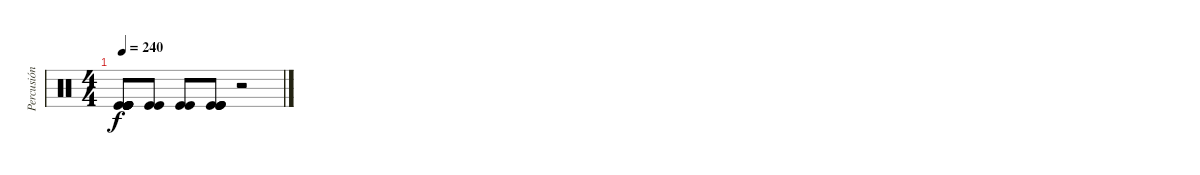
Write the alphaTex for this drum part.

\track ("Percusión" "Percusión") {instrument percussion}
\staff {score}
\articulation defaults
\ts (4 4)
\tempo 240
\clef neutral
\ks c
("Kick (hit)" "Kick (hit)" "Kick (hit)" "Kick (hit)" "Kick (hit)" "Kick (hit)").8{dy f} ("Kick (hit)" "Kick (hit)").8 ("Kick (hit)" "Kick (hit)").8 ("Kick (hit)" "Kick (hit)" "Kick (hit)" "Kick (hit)").8 r.2
